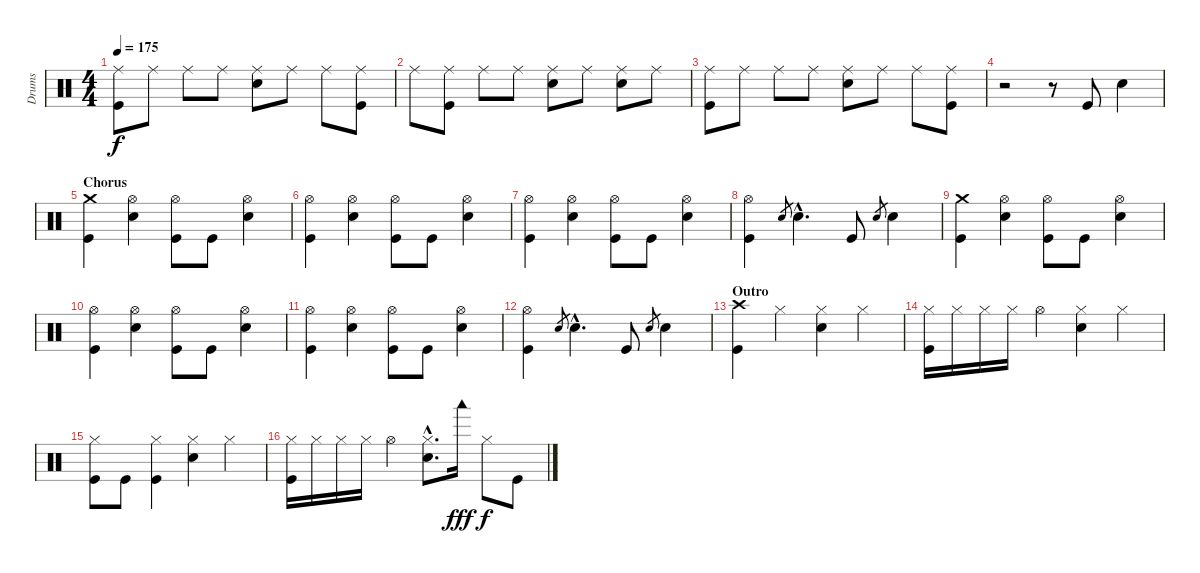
\track ("Drums" "Drums") {instrument percussion}
\staff {score}
\articulation defaults
\ts (4 4)
\tempo 175
\clef neutral
\ks c
("Ride (middle)" "Kick (hit)").8{dy f} "Ride (middle)".8 "Ride (middle)".8 "Ride (middle)".8 ("Ride (middle)" "Electric Snare (hit)").8 "Ride (middle)".8 "Ride (middle)".8 ("Ride (middle)" "Kick (hit)").8 |
"Ride (middle)".8 ("Ride (middle)" "Kick (hit)").8 "Ride (middle)".8 "Ride (middle)".8 ("Ride (middle)" "Electric Snare (hit)").8 "Ride (middle)".8 ("Ride (middle)" "Electric Snare (hit)").8 "Ride (middle)".8 |
("Ride (middle)" "Kick (hit)").8 "Ride (middle)".8 "Ride (middle)".8 "Ride (middle)".8 ("Ride (middle)" "Electric Snare (hit)").8 "Ride (middle)".8 "Ride (middle)".8 ("Ride (middle)" "Kick (hit)").8 |
r.2 r.8 "Kick (hit)".8 "Electric Snare (hit)".4 |
\section ("" "Chorus")
("Crash medium (hit)" "Kick (hit)").4 ("Hi-Hat (open)" "Electric Snare (hit)").4 ("Hi-Hat (open)" "Kick (hit)").8 "Kick (hit)".8 ("Hi-Hat (open)" "Electric Snare (hit)").4 |
("Hi-Hat (open)" "Kick (hit)").4 ("Hi-Hat (open)" "Electric Snare (hit)").4 ("Hi-Hat (open)" "Kick (hit)").8 "Kick (hit)".8 ("Hi-Hat (open)" "Electric Snare (hit)").4 |
("Hi-Hat (open)" "Kick (hit)").4 ("Hi-Hat (open)" "Electric Snare (hit)").4 ("Hi-Hat (open)" "Kick (hit)").8 "Kick (hit)".8 ("Hi-Hat (open)" "Electric Snare (hit)").4 |
("Hi-Hat (open)" "Kick (hit)").4 "Electric Snare (hit)".8{gr} "Electric Snare (hit)"{hac}.4{d} "Kick (hit)".8 "Electric Snare (hit)".8{gr} "Electric Snare (hit)".4 |
("Crash medium (hit)" "Kick (hit)").4 ("Hi-Hat (open)" "Electric Snare (hit)").4 ("Hi-Hat (open)" "Kick (hit)").8 "Kick (hit)".8 ("Hi-Hat (open)" "Electric Snare (hit)").4 |
("Hi-Hat (open)" "Kick (hit)").4 ("Hi-Hat (open)" "Electric Snare (hit)").4 ("Hi-Hat (open)" "Kick (hit)").8 "Kick (hit)".8 ("Hi-Hat (open)" "Electric Snare (hit)").4 |
("Hi-Hat (open)" "Kick (hit)").4 ("Hi-Hat (open)" "Electric Snare (hit)").4 ("Hi-Hat (open)" "Kick (hit)").8 "Kick (hit)".8 ("Hi-Hat (open)" "Electric Snare (hit)").4 |
("Hi-Hat (open)" "Kick (hit)").4 "Electric Snare (hit)".8{gr} "Electric Snare (hit)"{hac}.4{d} "Kick (hit)".8 "Electric Snare (hit)".8{gr} "Electric Snare (hit)".4 |
\section ("" "Outro")
("Crash high (hit)" "Kick (hit)").4 "Hi-Hat (closed)".4 ("Hi-Hat (closed)" "Electric Snare (hit)").4 "Hi-Hat (closed)".4 |
("Hi-Hat (closed)" "Kick (hit)").16 "Hi-Hat (closed)".16 "Hi-Hat (closed)".16 "Hi-Hat (closed)".16 "Hi-Hat (open)".4 ("Hi-Hat (closed)" "Electric Snare (hit)").4 "Hi-Hat (closed)".4 |
("Hi-Hat (closed)" "Kick (hit)").8 "Kick (hit)".8 ("Hi-Hat (closed)" "Kick (hit)").4 ("Hi-Hat (closed)" "Electric Snare (hit)").4 "Hi-Hat (closed)".4 |
("Hi-Hat (closed)" "Kick (hit)").16 "Hi-Hat (closed)".16 "Hi-Hat (closed)".16 "Hi-Hat (closed)".16 "Hi-Hat (open)".4 ("Hi-Hat (closed)"{hac} "Electric Snare (hit)"{hac}).8{d} "Woodblock low (hit)".16{dy fff} "Hi-Hat (closed)".8{dy f} "Kick (hit)".8
